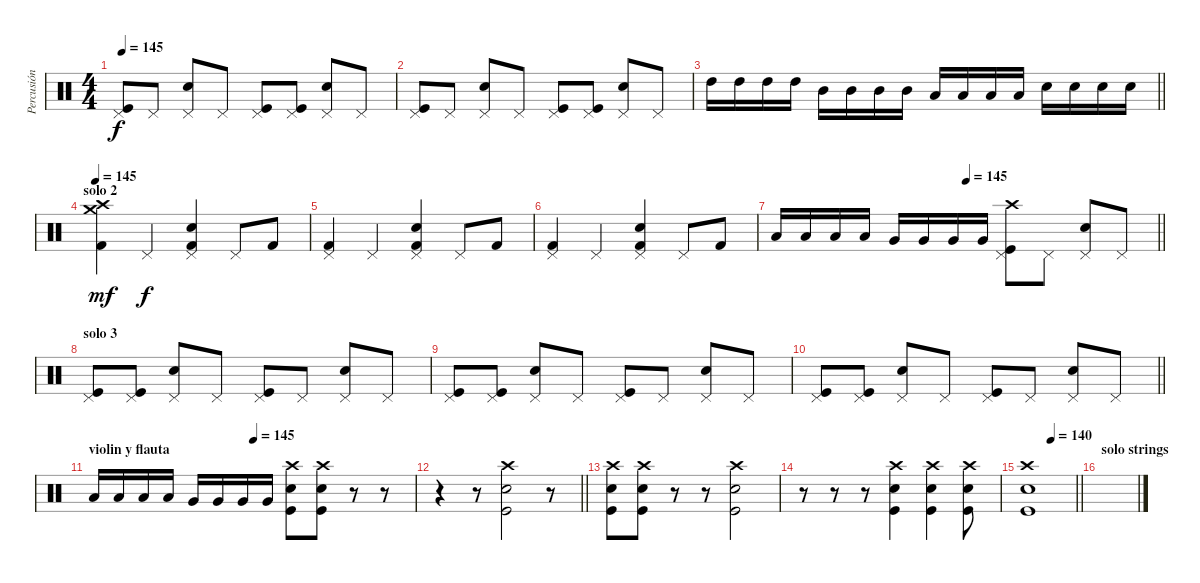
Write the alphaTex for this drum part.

\track ("Percusión" "Percusión") {instrument percussion}
\staff {score}
\articulation defaults
\ts (4 4)
\tempo 145
\clef neutral
\ks c
("Kick (hit)" "Pedal Hi-Hat (hit)").8{dy f} "Pedal Hi-Hat (hit)".8 ("Snare (hit) 2" "Pedal Hi-Hat (hit)").8 "Pedal Hi-Hat (hit)".8 ("Kick (hit)" "Pedal Hi-Hat (hit)").8 ("Kick (hit)" "Pedal Hi-Hat (hit)").8 ("Snare (hit) 2" "Pedal Hi-Hat (hit)").8 "Pedal Hi-Hat (hit)".8 |
("Kick (hit)" "Pedal Hi-Hat (hit)").8 "Pedal Hi-Hat (hit)".8 ("Snare (hit) 2" "Pedal Hi-Hat (hit)").8 "Pedal Hi-Hat (hit)".8 ("Kick (hit)" "Pedal Hi-Hat (hit)").8 ("Kick (hit)" "Pedal Hi-Hat (hit)").8 ("Snare (hit) 2" "Pedal Hi-Hat (hit)").8 "Pedal Hi-Hat (hit)".8 |
\barLineRight lightlight "High Tom (hit)".16 "High Tom (hit)".16 "High Tom (hit)".16 "High Tom (hit)".16 "Mid Tom (hit)".16 "Mid Tom (hit)".16 "Mid Tom (hit)".16 "Mid Tom (hit)".16 "Low Tom (hit)".16 "Low Tom (hit)".16 "Low Tom (hit)".16 "Low Tom (hit)".16 "Snare (hit) 2".16 "Snare (hit) 2".16 "Snare (hit) 2".16 "Snare (hit) 2".16
|
\section ("" "solo 2")
\tempo 145
("Crash medium (hit)" "Crash high (hit)" "Kick (hit) 2").4{dy mf} "Pedal Hi-Hat (hit)".4{dy f} ("Pedal Hi-Hat (hit)" "Electric Snare (hit)" "Kick (hit) 2").4 "Pedal Hi-Hat (hit)".8 "Kick (hit) 2".8 |
("Pedal Hi-Hat (hit)" "Kick (hit) 2").4 "Pedal Hi-Hat (hit)".4 ("Pedal Hi-Hat (hit)" "Electric Snare (hit)" "Kick (hit) 2").4 "Pedal Hi-Hat (hit)".8 "Kick (hit) 2".8 |
("Pedal Hi-Hat (hit)" "Kick (hit) 2").4 "Pedal Hi-Hat (hit)".4 ("Pedal Hi-Hat (hit)" "Electric Snare (hit)" "Kick (hit) 2").4 "Pedal Hi-Hat (hit)".8 "Kick (hit) 2".8 |
\tempo (145 0.5)
\barLineRight lightlight "Low Tom (hit)".16 "Low Tom (hit)".16 "Low Tom (hit)".16 "Low Tom (hit)".16 "Very Low Tom (hit)".16 "Very Low Tom (hit)".16 "Very Low Tom (hit)".16 "Very Low Tom (hit)".16
("Crash high (hit)" "Kick (hit)" "Pedal Hi-Hat (hit)").8 "Pedal Hi-Hat (hit)".8 ("Snare (hit) 2" "Pedal Hi-Hat (hit)").8 "Pedal Hi-Hat (hit)".8 |
\section ("" "solo 3")
("Kick (hit)" "Pedal Hi-Hat (hit)").8 ("Kick (hit)" "Pedal Hi-Hat (hit)").8 ("Snare (hit) 2" "Pedal Hi-Hat (hit)").8 "Pedal Hi-Hat (hit)".8 ("Kick (hit)" "Pedal Hi-Hat (hit)").8 "Pedal Hi-Hat (hit)".8 ("Snare (hit) 2" "Pedal Hi-Hat (hit)").8 "Pedal Hi-Hat (hit)".8 |
("Kick (hit)" "Pedal Hi-Hat (hit)").8 ("Kick (hit)" "Pedal Hi-Hat (hit)").8 ("Snare (hit) 2" "Pedal Hi-Hat (hit)").8 "Pedal Hi-Hat (hit)".8 ("Kick (hit)" "Pedal Hi-Hat (hit)").8 "Pedal Hi-Hat (hit)".8 ("Snare (hit) 2" "Pedal Hi-Hat (hit)").8 "Pedal Hi-Hat (hit)".8 |
\barLineRight lightlight
("Kick (hit)" "Pedal Hi-Hat (hit)").8 ("Kick (hit)" "Pedal Hi-Hat (hit)").8 ("Snare (hit) 2" "Pedal Hi-Hat (hit)").8 "Pedal Hi-Hat (hit)".8 ("Kick (hit)" "Pedal Hi-Hat (hit)").8 "Pedal Hi-Hat (hit)".8 ("Snare (hit) 2" "Pedal Hi-Hat (hit)").8 "Pedal Hi-Hat (hit)".8 |
\section ("" "violin y flauta")
\tempo (145 0.5)
"Low Tom (hit)".16 "Low Tom (hit)".16 "Low Tom (hit)".16 "Low Tom (hit)".16 "Very Low Tom (hit)".16 "Very Low Tom (hit)".16 "Very Low Tom (hit)".16 "Very Low Tom (hit)".16 ("Kick (hit)" "Snare (hit) 2" "Crash high (hit)").8 ("Snare (hit) 2" "Kick (hit)" "Crash high (hit)").8 r.8 r.8 |
\barLineRight lightlight
r.4 r.8 ("Snare (hit) 2" "Kick (hit)" "Crash high (hit)").2 r.8 |
("Crash high (hit)" "Kick (hit)" "Snare (hit) 2").8 ("Snare (hit) 2" "Kick (hit)" "Crash high (hit)").8 r.8 r.8 ("Crash high (hit)" "Snare (hit) 2" "Kick (hit)").2 |
r.8 r.8 r.8 ("Crash high (hit)" "Kick (hit)" "Snare (hit) 2").4 ("Snare (hit) 2" "Kick (hit)" "Crash high (hit)").4 ("Crash high (hit)" "Kick (hit)" "Snare (hit) 2").8 |
\tempo (140 0.5)
\barLineRight lightlight
("Snare (hit) 2" "Kick (hit)" "Crash high (hit)").1 |
\section ("" "solo strings")
